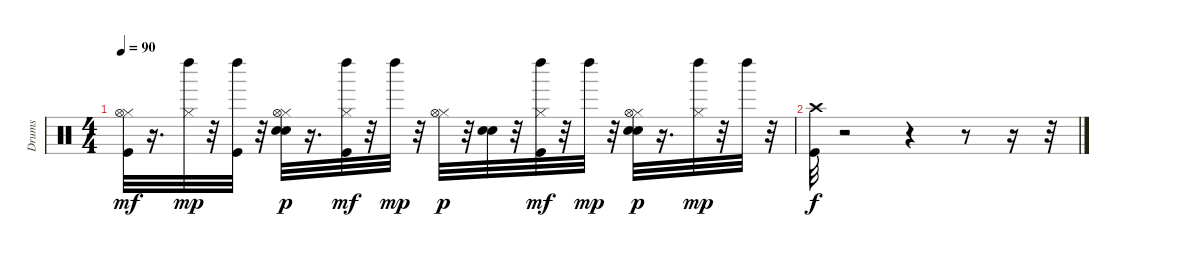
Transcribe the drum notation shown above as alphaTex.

\track ("Drums" "Drums") {instrument percussion}
\staff {score}
\articulation defaults
\ts (4 4)
\tempo 90
\clef neutral
\ks c
("Hi-Hat (closed)" "Hi-Hat (open)" "Kick (hit)").32{dy mf} r.16{d} ("Hi-Hat (closed)" "Left Maraca (hit)").32{dy mp} r.32 ("Kick (hit)" "Left Maraca (hit)").32 r.32 ("Snare (hit) 2" "Electric Snare (hit)" "Hi-Hat (closed)" "Hi-Hat (open)").32{dy p} r.16{d} ("Hi-Hat (closed)" "Left Maraca (hit)" "Kick (hit)").32{dy mf} r.32 "Left Maraca (hit)".32{dy mp} r.32 ("Hi-Hat (closed)" "Hi-Hat (open)").32{dy p} r.32 ("Electric Snare (hit)" "Snare (hit) 2").32 r.32 ("Hi-Hat (closed)" "Left Maraca (hit)" "Kick (hit)").32{dy mf} r.32 "Left Maraca (hit)".32{dy mp} r.32 ("Snare (hit) 2" "Electric Snare (hit)" "Hi-Hat (closed)" "Hi-Hat (open)").32{dy p} r.16{d} ("Hi-Hat (closed)" "Left Maraca (hit)").32{dy mp} r.32 "Left Maraca (hit)".32 r.32 |
("Crash high (hit)" "Kick (hit)").32{dy f} r.2 r.4 r.8 r.16 r.32
